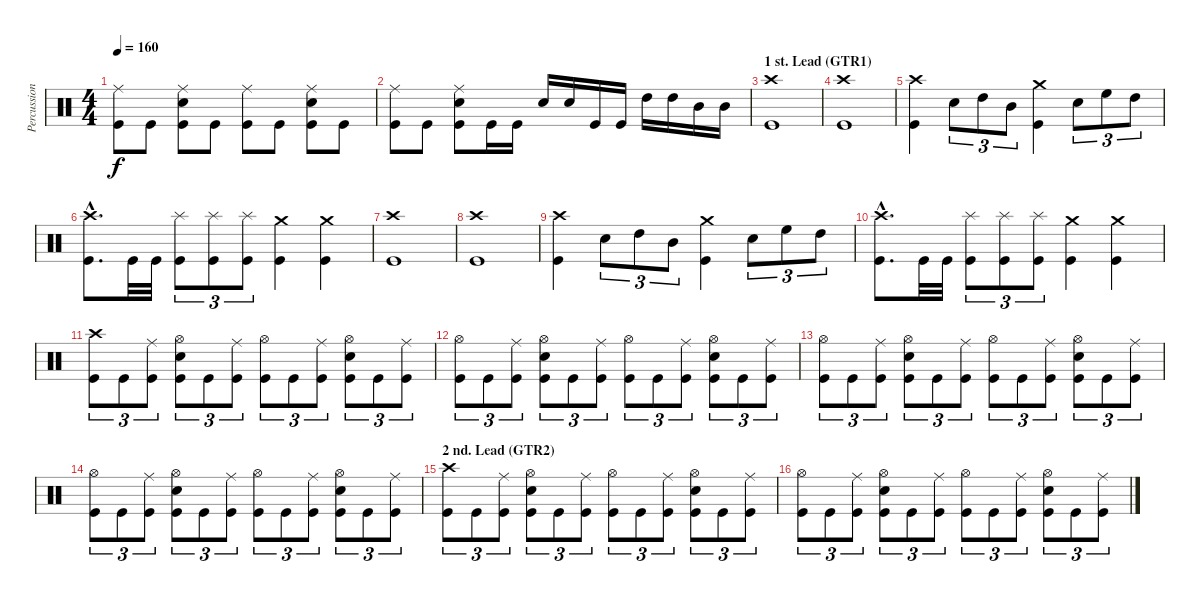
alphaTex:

\track ("Percussion" "Percussion") {instrument percussion}
\staff {score}
\articulation defaults
\ts (4 4)
\tempo 160
\clef neutral
\ks c
("Ride (middle)" "Kick (hit)").8{dy f} "Kick (hit)".8 ("Ride (middle)" "Electric Snare (hit)" "Kick (hit)").8 "Kick (hit)".8 ("Ride (middle)" "Kick (hit)").8 "Kick (hit)".8 ("Ride (middle)" "Electric Snare (hit)" "Kick (hit)").8 "Kick (hit)".8 |
("Ride (middle)" "Kick (hit)").8 "Kick (hit)".8 ("Ride (middle)" "Electric Snare (hit)" "Kick (hit)").8 "Kick (hit)".16 "Kick (hit)".16 "Electric Snare (hit)".16 "Electric Snare (hit)".16 "Kick (hit)".16 "Kick (hit)".16 "High Tom (hit)".16 "High Tom (hit)".16 "Mid Tom (hit)".16 "Mid Tom (hit)".16 |
\section ("" "1 st. Lead (GTR1)")
("Crash high (hit)" "Kick (hit)").1 |
("Crash high (hit)" "Kick (hit)").1 |
("Crash high (hit)" "Kick (hit)").4 "Electric Snare (hit)".8{tu (3 2)} "High Tom (hit)".8{tu (3 2)} "Mid Tom (hit)".8{tu (3 2)} ("Crash medium (hit)" "Kick (hit)").4 "Electric Snare (hit)".8{tu (3 2)} "High Floor Tom (hit)".8{tu (3 2)} "High Tom (hit)".8{tu (3 2)} |
("Crash high (hit)"{hac} "Kick (hit)"{hac}).8{d} "Kick (hit)".32 "Kick (hit)".32 ("Splash (hit)" "Kick (hit)").8{tu (3 2)} ("Splash (hit)" "Kick (hit)").8{tu (3 2)} ("Splash (hit)" "Kick (hit)").8{tu (3 2)} ("Crash medium (hit)" "Kick (hit)").4 ("Crash medium (hit)" "Kick (hit)").4 |
("Crash high (hit)" "Kick (hit)").1 |
("Crash high (hit)" "Kick (hit)").1 |
("Crash high (hit)" "Kick (hit)").4 "Electric Snare (hit)".8{tu (3 2)} "High Tom (hit)".8{tu (3 2)} "Mid Tom (hit)".8{tu (3 2)} ("Crash medium (hit)" "Kick (hit)").4 "Electric Snare (hit)".8{tu (3 2)} "High Floor Tom (hit)".8{tu (3 2)} "High Tom (hit)".8{tu (3 2)} |
("Crash high (hit)"{hac} "Kick (hit)"{hac}).8{d} "Kick (hit)".32 "Kick (hit)".32 ("Splash (hit)" "Kick (hit)").8{tu (3 2)} ("Splash (hit)" "Kick (hit)").8{tu (3 2)} ("Splash (hit)" "Kick (hit)").8{tu (3 2)} ("Crash medium (hit)" "Kick (hit)").4 ("Crash medium (hit)" "Kick (hit)").4 |
("Crash high (hit)" "Kick (hit)").8{tu (3 2)} "Kick (hit)".8{tu (3 2)} ("Ride (middle)" "Kick (hit)").8{tu (3 2)} ("Hi-Hat (open)" "Electric Snare (hit)" "Kick (hit)").8{tu (3 2)} "Kick (hit)".8{tu (3 2)} ("Ride (middle)" "Kick (hit)").8{tu (3 2)} ("Hi-Hat (open)" "Kick (hit)").8{tu (3 2)} "Kick (hit)".8{tu (3 2)} ("Ride (middle)" "Kick (hit)").8{tu (3 2)} ("Hi-Hat (open)" "Electric Snare (hit)" "Kick (hit)").8{tu (3 2)} "Kick (hit)".8{tu (3 2)} ("Ride (middle)" "Kick (hit)").8{tu (3 2)} |
("Hi-Hat (open)" "Kick (hit)").8{tu (3 2)} "Kick (hit)".8{tu (3 2)} ("Ride (middle)" "Kick (hit)").8{tu (3 2)} ("Hi-Hat (open)" "Electric Snare (hit)" "Kick (hit)").8{tu (3 2)} "Kick (hit)".8{tu (3 2)} ("Ride (middle)" "Kick (hit)").8{tu (3 2)} ("Hi-Hat (open)" "Kick (hit)").8{tu (3 2)} "Kick (hit)".8{tu (3 2)} ("Ride (middle)" "Kick (hit)").8{tu (3 2)} ("Hi-Hat (open)" "Electric Snare (hit)" "Kick (hit)").8{tu (3 2)} "Kick (hit)".8{tu (3 2)} ("Ride (middle)" "Kick (hit)").8{tu (3 2)} |
("Hi-Hat (open)" "Kick (hit)").8{tu (3 2)} "Kick (hit)".8{tu (3 2)} ("Ride (middle)" "Kick (hit)").8{tu (3 2)} ("Hi-Hat (open)" "Electric Snare (hit)" "Kick (hit)").8{tu (3 2)} "Kick (hit)".8{tu (3 2)} ("Ride (middle)" "Kick (hit)").8{tu (3 2)} ("Hi-Hat (open)" "Kick (hit)").8{tu (3 2)} "Kick (hit)".8{tu (3 2)} ("Ride (middle)" "Kick (hit)").8{tu (3 2)} ("Hi-Hat (open)" "Electric Snare (hit)" "Kick (hit)").8{tu (3 2)} "Kick (hit)".8{tu (3 2)} ("Ride (middle)" "Kick (hit)").8{tu (3 2)} |
("Hi-Hat (open)" "Kick (hit)").8{tu (3 2)} "Kick (hit)".8{tu (3 2)} ("Ride (middle)" "Kick (hit)").8{tu (3 2)} ("Hi-Hat (open)" "Electric Snare (hit)" "Kick (hit)").8{tu (3 2)} "Kick (hit)".8{tu (3 2)} ("Ride (middle)" "Kick (hit)").8{tu (3 2)} ("Hi-Hat (open)" "Kick (hit)").8{tu (3 2)} "Kick (hit)".8{tu (3 2)} ("Ride (middle)" "Kick (hit)").8{tu (3 2)} ("Hi-Hat (open)" "Electric Snare (hit)" "Kick (hit)").8{tu (3 2)} "Kick (hit)".8{tu (3 2)} ("Ride (middle)" "Kick (hit)").8{tu (3 2)} |
\section ("" "2 nd. Lead (GTR2)")
("Crash high (hit)" "Kick (hit)").8{tu (3 2)} "Kick (hit)".8{tu (3 2)} ("Ride (middle)" "Kick (hit)").8{tu (3 2)} ("Hi-Hat (open)" "Electric Snare (hit)" "Kick (hit)").8{tu (3 2)} "Kick (hit)".8{tu (3 2)} ("Ride (middle)" "Kick (hit)").8{tu (3 2)} ("Hi-Hat (open)" "Kick (hit)").8{tu (3 2)} "Kick (hit)".8{tu (3 2)} ("Ride (middle)" "Kick (hit)").8{tu (3 2)} ("Hi-Hat (open)" "Electric Snare (hit)" "Kick (hit)").8{tu (3 2)} "Kick (hit)".8{tu (3 2)} ("Ride (middle)" "Kick (hit)").8{tu (3 2)} |
("Hi-Hat (open)" "Kick (hit)").8{tu (3 2)} "Kick (hit)".8{tu (3 2)} ("Ride (middle)" "Kick (hit)").8{tu (3 2)} ("Hi-Hat (open)" "Electric Snare (hit)" "Kick (hit)").8{tu (3 2)} "Kick (hit)".8{tu (3 2)} ("Ride (middle)" "Kick (hit)").8{tu (3 2)} ("Hi-Hat (open)" "Kick (hit)").8{tu (3 2)} "Kick (hit)".8{tu (3 2)} ("Ride (middle)" "Kick (hit)").8{tu (3 2)} ("Hi-Hat (open)" "Electric Snare (hit)" "Kick (hit)").8{tu (3 2)} "Kick (hit)".8{tu (3 2)} ("Ride (middle)" "Kick (hit)").8{tu (3 2)}
